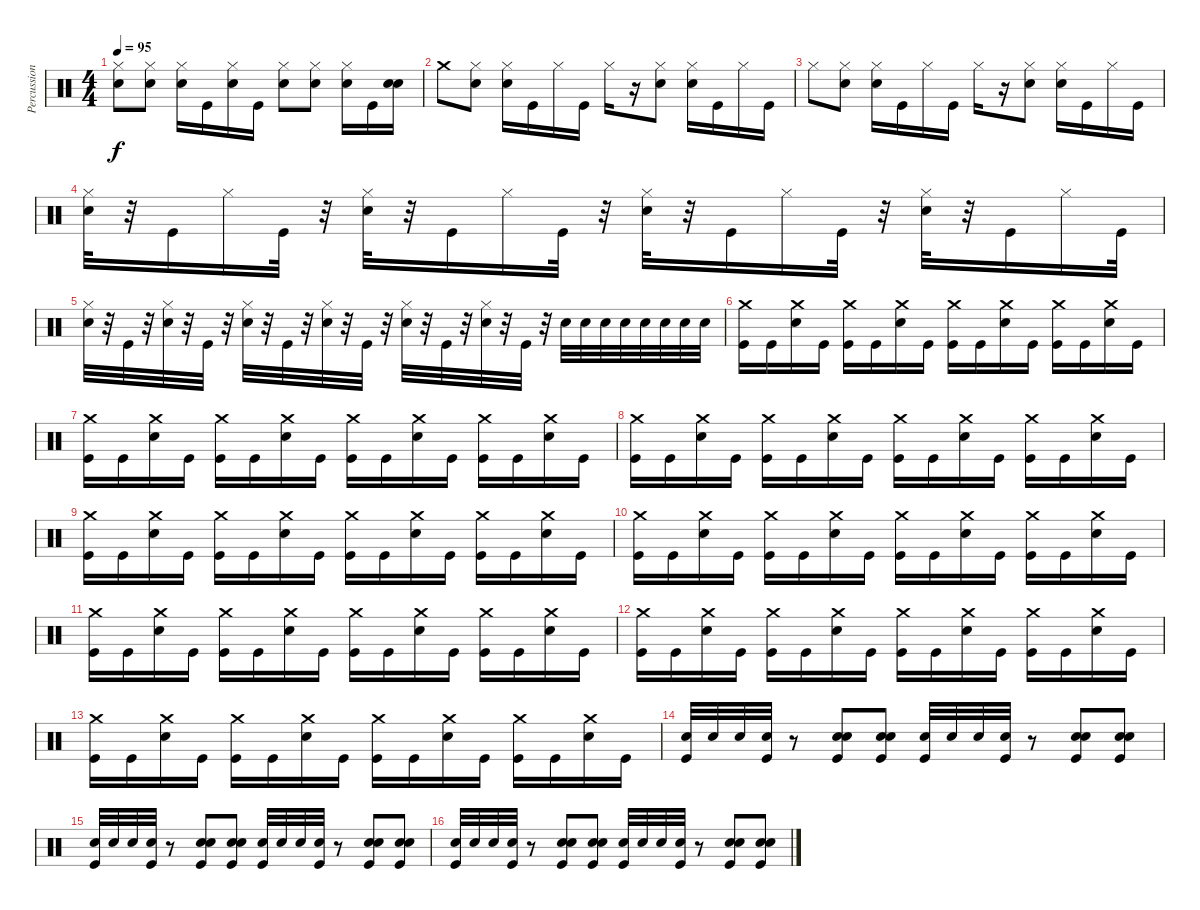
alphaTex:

\track ("Percussion" "Percussion") {instrument percussion}
\staff {score}
\articulation defaults
\ts (4 4)
\tempo 95
\clef neutral
\ks c
("Hi-Hat (closed)" "Electric Snare (hit)").8{dy f} ("Hi-Hat (closed)" "Electric Snare (hit)").8 ("Hi-Hat (closed)" "Electric Snare (hit)").16 "Kick (hit)".16 ("Hi-Hat (closed)" "Electric Snare (hit)").16 "Kick (hit)".16 ("Hi-Hat (closed)" "Electric Snare (hit)").8 ("Hi-Hat (closed)" "Electric Snare (hit)").8 ("Hi-Hat (closed)" "Electric Snare (hit)").16 "Kick (hit)".16 ("Electric Snare (hit)" "Electric Snare (hit)").16 |
"Crash medium (hit)".8 ("Hi-Hat (closed)" "Electric Snare (hit)").8 ("Hi-Hat (closed)" "Electric Snare (hit)").16 "Kick (hit)".16 "Hi-Hat (closed)".16 "Kick (hit)".16 "Hi-Hat (closed)".16 r.16 ("Hi-Hat (closed)" "Electric Snare (hit)").8 ("Hi-Hat (closed)" "Electric Snare (hit)").16 "Kick (hit)".16 "Hi-Hat (closed)".16 "Kick (hit)".16 |
"Hi-Hat (closed)".8 ("Hi-Hat (closed)" "Electric Snare (hit)").8 ("Hi-Hat (closed)" "Electric Snare (hit)").16 "Kick (hit)".16 "Hi-Hat (closed)".16 "Kick (hit)".16 "Hi-Hat (closed)".16 r.16 ("Hi-Hat (closed)" "Electric Snare (hit)").8 ("Hi-Hat (closed)" "Electric Snare (hit)").16 "Kick (hit)".16 "Hi-Hat (closed)".16 "Kick (hit)".16 |
("Hi-Hat (closed)" "Electric Snare (hit)").32 r.32 "Kick (hit)".16 "Hi-Hat (closed)".16 "Kick (hit)".32 r.32 ("Hi-Hat (closed)" "Electric Snare (hit)").32 r.32 "Kick (hit)".16 "Hi-Hat (closed)".16 "Kick (hit)".32 r.32 ("Hi-Hat (closed)" "Electric Snare (hit)").32 r.32 "Kick (hit)".16 "Hi-Hat (closed)".16 "Kick (hit)".32 r.32 ("Hi-Hat (closed)" "Electric Snare (hit)").32 r.32 "Kick (hit)".16 "Hi-Hat (closed)".16 "Kick (hit)".32 |
("Hi-Hat (closed)" "Electric Snare (hit)").32 r.32 "Kick (hit)".32 r.32 ("Hi-Hat (closed)" "Electric Snare (hit)").32 r.32 "Kick (hit)".32 r.32 ("Hi-Hat (closed)" "Electric Snare (hit)").32 r.32 "Kick (hit)".32 r.32 ("Hi-Hat (closed)" "Electric Snare (hit)").32 r.32 "Kick (hit)".32 r.32 ("Hi-Hat (closed)" "Electric Snare (hit)").32 r.32 "Kick (hit)".32 r.32 ("Hi-Hat (closed)" "Electric Snare (hit)").32 r.32 "Kick (hit)".32 r.32 "Electric Snare (hit)".32 "Electric Snare (hit)".32 "Electric Snare (hit)".32 "Electric Snare (hit)".32 "Electric Snare (hit)".32 "Electric Snare (hit)".32 "Electric Snare (hit)".32 "Electric Snare (hit)".32 |
("Crash medium (hit)" "Kick (hit)").16 "Kick (hit)".16 ("Crash medium (hit)" "Electric Snare (hit)").16 "Kick (hit)".16 ("Crash medium (hit)" "Kick (hit)").16 "Kick (hit)".16 ("Crash medium (hit)" "Electric Snare (hit)").16 "Kick (hit)".16 ("Crash medium (hit)" "Kick (hit)").16 "Kick (hit)".16 ("Crash medium (hit)" "Electric Snare (hit)").16 "Kick (hit)".16 ("Crash medium (hit)" "Kick (hit)").16 "Kick (hit)".16 ("Crash medium (hit)" "Electric Snare (hit)").16 "Kick (hit)".16 |
("Crash medium (hit)" "Kick (hit)").16 "Kick (hit)".16 ("Crash medium (hit)" "Electric Snare (hit)").16 "Kick (hit)".16 ("Crash medium (hit)" "Kick (hit)").16 "Kick (hit)".16 ("Crash medium (hit)" "Electric Snare (hit)").16 "Kick (hit)".16 ("Crash medium (hit)" "Kick (hit)").16 "Kick (hit)".16 ("Crash medium (hit)" "Electric Snare (hit)").16 "Kick (hit)".16 ("Crash medium (hit)" "Kick (hit)").16 "Kick (hit)".16 ("Crash medium (hit)" "Electric Snare (hit)").16 "Kick (hit)".16 |
("Crash medium (hit)" "Kick (hit)").16 "Kick (hit)".16 ("Crash medium (hit)" "Electric Snare (hit)").16 "Kick (hit)".16 ("Crash medium (hit)" "Kick (hit)").16 "Kick (hit)".16 ("Crash medium (hit)" "Electric Snare (hit)").16 "Kick (hit)".16 ("Crash medium (hit)" "Kick (hit)").16 "Kick (hit)".16 ("Crash medium (hit)" "Electric Snare (hit)").16 "Kick (hit)".16 ("Crash medium (hit)" "Kick (hit)").16 "Kick (hit)".16 ("Crash medium (hit)" "Electric Snare (hit)").16 "Kick (hit)".16 |
("Crash medium (hit)" "Kick (hit)").16 "Kick (hit)".16 ("Crash medium (hit)" "Electric Snare (hit)").16 "Kick (hit)".16 ("Crash medium (hit)" "Kick (hit)").16 "Kick (hit)".16 ("Crash medium (hit)" "Electric Snare (hit)").16 "Kick (hit)".16 ("Crash medium (hit)" "Kick (hit)").16 "Kick (hit)".16 ("Crash medium (hit)" "Electric Snare (hit)").16 "Kick (hit)".16 ("Crash medium (hit)" "Kick (hit)").16 "Kick (hit)".16 ("Crash medium (hit)" "Electric Snare (hit)").16 "Kick (hit)".16 |
("Crash medium (hit)" "Kick (hit)").16 "Kick (hit)".16 ("Crash medium (hit)" "Electric Snare (hit)").16 "Kick (hit)".16 ("Crash medium (hit)" "Kick (hit)").16 "Kick (hit)".16 ("Crash medium (hit)" "Electric Snare (hit)").16 "Kick (hit)".16 ("Crash medium (hit)" "Kick (hit)").16 "Kick (hit)".16 ("Crash medium (hit)" "Electric Snare (hit)").16 "Kick (hit)".16 ("Crash medium (hit)" "Kick (hit)").16 "Kick (hit)".16 ("Crash medium (hit)" "Electric Snare (hit)").16 "Kick (hit)".16 |
("Crash medium (hit)" "Kick (hit)").16 "Kick (hit)".16 ("Crash medium (hit)" "Electric Snare (hit)").16 "Kick (hit)".16 ("Crash medium (hit)" "Kick (hit)").16 "Kick (hit)".16 ("Crash medium (hit)" "Electric Snare (hit)").16 "Kick (hit)".16 ("Crash medium (hit)" "Kick (hit)").16 "Kick (hit)".16 ("Crash medium (hit)" "Electric Snare (hit)").16 "Kick (hit)".16 ("Crash medium (hit)" "Kick (hit)").16 "Kick (hit)".16 ("Crash medium (hit)" "Electric Snare (hit)").16 "Kick (hit)".16 |
("Crash medium (hit)" "Kick (hit)").16 "Kick (hit)".16 ("Crash medium (hit)" "Electric Snare (hit)").16 "Kick (hit)".16 ("Crash medium (hit)" "Kick (hit)").16 "Kick (hit)".16 ("Crash medium (hit)" "Electric Snare (hit)").16 "Kick (hit)".16 ("Crash medium (hit)" "Kick (hit)").16 "Kick (hit)".16 ("Crash medium (hit)" "Electric Snare (hit)").16 "Kick (hit)".16 ("Crash medium (hit)" "Kick (hit)").16 "Kick (hit)".16 ("Crash medium (hit)" "Electric Snare (hit)").16 "Kick (hit)".16 |
("Crash medium (hit)" "Kick (hit)").16 "Kick (hit)".16 ("Crash medium (hit)" "Electric Snare (hit)").16 "Kick (hit)".16 ("Crash medium (hit)" "Kick (hit)").16 "Kick (hit)".16 ("Crash medium (hit)" "Electric Snare (hit)").16 "Kick (hit)".16 ("Crash medium (hit)" "Kick (hit)").16 "Kick (hit)".16 ("Crash medium (hit)" "Electric Snare (hit)").16 "Kick (hit)".16 ("Crash medium (hit)" "Kick (hit)").16 "Kick (hit)".16 ("Crash medium (hit)" "Electric Snare (hit)").16 "Kick (hit)".16 |
("Electric Snare (hit)" "Kick (hit)").32 "Electric Snare (hit)".32 "Electric Snare (hit)".32 ("Electric Snare (hit)" "Kick (hit)").32 r.8 ("Electric Snare (hit)" "Electric Snare (hit)" "Kick (hit)").8 ("Electric Snare (hit)" "Electric Snare (hit)" "Kick (hit)").8 ("Electric Snare (hit)" "Kick (hit)").32 "Electric Snare (hit)".32 "Electric Snare (hit)".32 ("Electric Snare (hit)" "Kick (hit)").32 r.8 ("Electric Snare (hit)" "Electric Snare (hit)" "Kick (hit)").8 ("Electric Snare (hit)" "Electric Snare (hit)" "Kick (hit)").8 |
("Electric Snare (hit)" "Kick (hit)").32 "Electric Snare (hit)".32 "Electric Snare (hit)".32 ("Electric Snare (hit)" "Kick (hit)").32 r.8 ("Electric Snare (hit)" "Electric Snare (hit)" "Kick (hit)").8 ("Electric Snare (hit)" "Electric Snare (hit)" "Kick (hit)").8 ("Electric Snare (hit)" "Kick (hit)").32 "Electric Snare (hit)".32 "Electric Snare (hit)".32 ("Electric Snare (hit)" "Kick (hit)").32 r.8 ("Electric Snare (hit)" "Electric Snare (hit)" "Kick (hit)").8 ("Electric Snare (hit)" "Electric Snare (hit)" "Kick (hit)").8 |
("Electric Snare (hit)" "Kick (hit)").32 "Electric Snare (hit)".32 "Electric Snare (hit)".32 ("Electric Snare (hit)" "Kick (hit)").32 r.8 ("Electric Snare (hit)" "Electric Snare (hit)" "Kick (hit)").8 ("Electric Snare (hit)" "Electric Snare (hit)" "Kick (hit)").8 ("Electric Snare (hit)" "Kick (hit)").32 "Electric Snare (hit)".32 "Electric Snare (hit)".32 ("Electric Snare (hit)" "Kick (hit)").32 r.8 ("Electric Snare (hit)" "Electric Snare (hit)" "Kick (hit)").8 ("Electric Snare (hit)" "Electric Snare (hit)" "Kick (hit)").8
